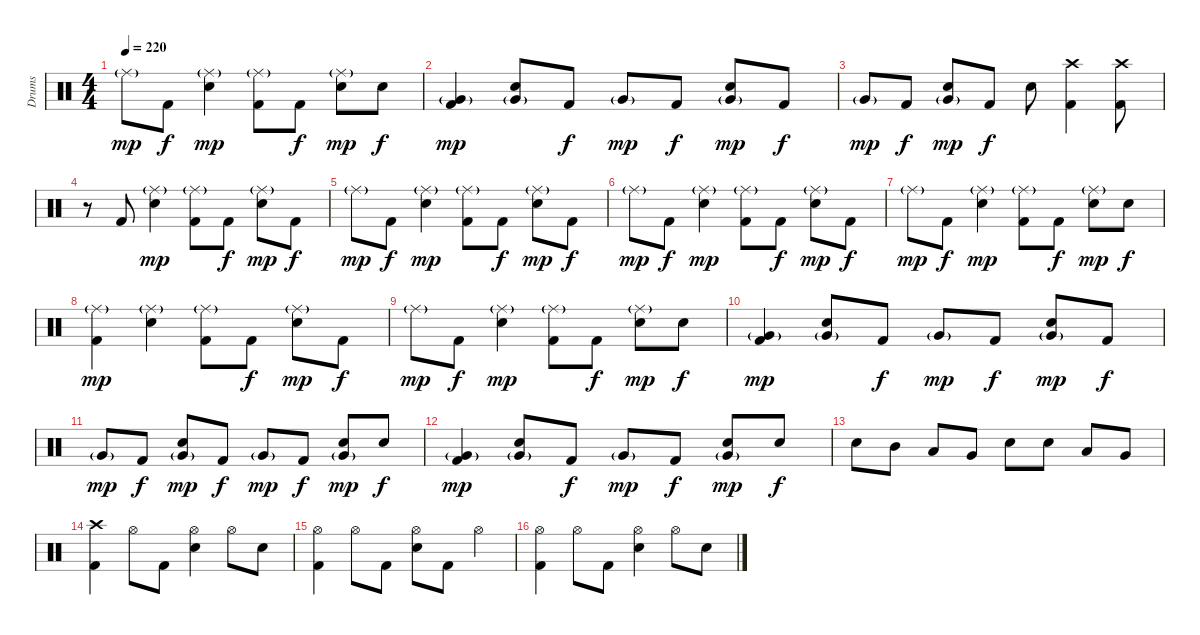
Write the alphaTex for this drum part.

\track ("Drums" "Drums") {instrument percussion}
\staff {score}
\articulation defaults
\ts (4 4)
\tempo 220
\clef neutral
\ks c "Ride (middle)"{g}.8{dy mp} "Kick (hit) 2".8{dy f}
("Ride (middle)"{g} "Snare (hit) 2").4{dy mp} ("Ride (middle)"{g} "Kick (hit) 2").8 "Kick (hit) 2".8{dy f} ("Ride (middle)"{g} "Snare (hit) 2").8{dy mp} "Snare (hit) 2".8{dy f} |
("Very Low Tom (hit)"{g} "Kick (hit) 2").4{dy mp} ("Snare (hit) 2" "Very Low Tom (hit)"{g}).8 "Kick (hit) 2".8{dy f} "Very Low Tom (hit)"{g}.8{dy mp} "Kick (hit) 2".8{dy f} ("Snare (hit) 2" "Very Low Tom (hit)"{g}).8{dy mp} "Kick (hit) 2".8{dy f} |
"Very Low Tom (hit)"{g}.8{dy mp} "Kick (hit) 2".8{dy f} ("Snare (hit) 2" "Very Low Tom (hit)"{g}).8{dy mp} "Kick (hit) 2".8{dy f} "Snare (hit) 2".8 ("Crash high (hit)" "Kick (hit) 2").4 ("Crash high (hit)" "Kick (hit) 2").8 |
r.8 "Kick (hit) 2".8 ("Ride (middle)"{g} "Snare (hit) 2").4{dy mp} ("Ride (middle)"{g} "Kick (hit) 2").8 "Kick (hit) 2".8{dy f} ("Ride (middle)"{g} "Snare (hit) 2").8{dy mp} "Kick (hit) 2".8{dy f} |
"Ride (middle)"{g}.8{dy mp} "Kick (hit) 2".8{dy f} ("Ride (middle)"{g} "Snare (hit) 2").4{dy mp} ("Ride (middle)"{g} "Kick (hit) 2").8 "Kick (hit) 2".8{dy f} ("Ride (middle)"{g} "Snare (hit) 2").8{dy mp} "Kick (hit) 2".8{dy f} |
"Ride (middle)"{g}.8{dy mp} "Kick (hit) 2".8{dy f} ("Ride (middle)"{g} "Snare (hit) 2").4{dy mp} ("Ride (middle)"{g} "Kick (hit) 2").8 "Kick (hit) 2".8{dy f} ("Ride (middle)"{g} "Snare (hit) 2").8{dy mp} "Kick (hit) 2".8{dy f} |
"Ride (middle)"{g}.8{dy mp} "Kick (hit) 2".8{dy f} ("Ride (middle)"{g} "Snare (hit) 2").4{dy mp} ("Ride (middle)"{g} "Kick (hit) 2").8 "Kick (hit) 2".8{dy f} ("Ride (middle)"{g} "Snare (hit) 2").8{dy mp} "Snare (hit) 2".8{dy f} |
("Ride (middle)"{g} "Kick (hit) 2").4{dy mp} ("Ride (middle)"{g} "Snare (hit) 2").4 ("Ride (middle)"{g} "Kick (hit) 2").8 "Kick (hit) 2".8{dy f} ("Ride (middle)"{g} "Snare (hit) 2").8{dy mp} "Kick (hit) 2".8{dy f} |
"Ride (middle)"{g}.8{dy mp} "Kick (hit) 2".8{dy f} ("Ride (middle)"{g} "Snare (hit) 2").4{dy mp} ("Ride (middle)"{g} "Kick (hit) 2").8 "Kick (hit) 2".8{dy f} ("Ride (middle)"{g} "Snare (hit) 2").8{dy mp} "Snare (hit) 2".8{dy f} |
("Very Low Tom (hit)"{g} "Kick (hit) 2").4{dy mp} ("Snare (hit) 2" "Very Low Tom (hit)"{g}).8 "Kick (hit) 2".8{dy f} "Very Low Tom (hit)"{g}.8{dy mp} "Kick (hit) 2".8{dy f} ("Snare (hit) 2" "Very Low Tom (hit)"{g}).8{dy mp} "Kick (hit) 2".8{dy f} |
"Very Low Tom (hit)"{g}.8{dy mp} "Kick (hit) 2".8{dy f} ("Snare (hit) 2" "Very Low Tom (hit)"{g}).8{dy mp} "Kick (hit) 2".8{dy f} "Very Low Tom (hit)"{g}.8{dy mp} "Kick (hit) 2".8{dy f} ("Snare (hit) 2" "Very Low Tom (hit)"{g}).8{dy mp} "Snare (hit) 2".8{dy f} |
("Very Low Tom (hit)"{g} "Kick (hit) 2").4{dy mp} ("Snare (hit) 2" "Very Low Tom (hit)"{g}).8 "Kick (hit) 2".8{dy f} "Very Low Tom (hit)"{g}.8{dy mp} "Kick (hit) 2".8{dy f} ("Snare (hit) 2" "Very Low Tom (hit)"{g}).8{dy mp} "Snare (hit) 2".8{dy f} |
"Snare (hit) 2".8 "Mid Tom (hit)".8 "Low Tom (hit)".8 "Very Low Tom (hit)".8 "Snare (hit) 2".8 "Snare (hit) 2".8 "Low Tom (hit)".8 "Very Low Tom (hit)".8 |
("Crash high (hit)" "Kick (hit) 2").4 "Hi-Hat (open)".8 "Kick (hit) 2".8 ("Hi-Hat (open)" "Snare (hit) 2").4 "Hi-Hat (open)".8 "Snare (hit) 2".8 |
("Hi-Hat (open)" "Kick (hit) 2").4 "Hi-Hat (open)".8 "Kick (hit) 2".8 ("Hi-Hat (open)" "Snare (hit) 2").8 "Kick (hit) 2".8 "Hi-Hat (open)".4 |
("Hi-Hat (open)" "Kick (hit) 2").4 "Hi-Hat (open)".8 "Kick (hit) 2".8 ("Hi-Hat (open)" "Snare (hit) 2").4 "Hi-Hat (open)".8 "Snare (hit) 2".8
